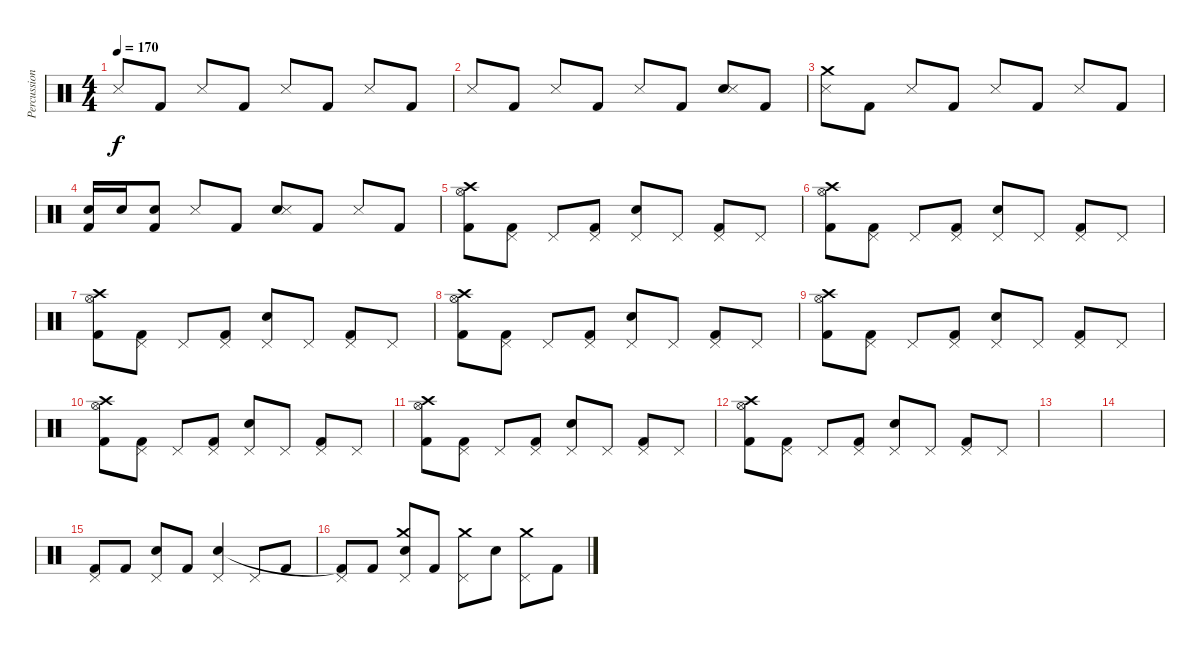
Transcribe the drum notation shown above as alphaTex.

\track ("Percussion" "Percussion") {instrument percussion}
\staff {score}
\articulation defaults
\ts (4 4)
\tempo 170
\clef neutral
\ks c "Metronome (hit)".8{dy f} "Kick (hit) 2".8 "Metronome (hit)".8 "Kick (hit) 2".8 "Metronome (hit)".8 "Kick (hit) 2".8 "Metronome (hit)".8 "Kick (hit) 2".8
|
"Metronome (hit)".8 "Kick (hit) 2".8 "Metronome (hit)".8 "Kick (hit) 2".8 "Metronome (hit)".8 "Kick (hit) 2".8 ("Electric Snare (hit)" "Metronome (hit)").8 "Kick (hit) 2".8 |
("Crash medium (hit)" "Metronome (hit)").8 "Kick (hit) 2".8 "Metronome (hit)".8 "Kick (hit) 2".8 "Metronome (hit)".8 "Kick (hit) 2".8 "Metronome (hit)".8 "Kick (hit) 2".8 |
("Electric Snare (hit)" "Kick (hit) 2").16 "Electric Snare (hit)".16 ("Electric Snare (hit)" "Kick (hit) 2").8 "Metronome (hit)".8 "Kick (hit) 2".8 ("Electric Snare (hit)" "Metronome (hit)").8 "Kick (hit) 2".8 "Metronome (hit)".8 "Kick (hit) 2".8 |
("Hi-Hat (open)" "Kick (hit) 2" "Crash high (hit)").8 ("Pedal Hi-Hat (hit)" "Kick (hit) 2").8 "Pedal Hi-Hat (hit)".8 ("Pedal Hi-Hat (hit)" "Kick (hit) 2").8 ("Pedal Hi-Hat (hit)" "Electric Snare (hit)").8 "Pedal Hi-Hat (hit)".8 ("Pedal Hi-Hat (hit)" "Kick (hit) 2").8 "Pedal Hi-Hat (hit)".8 |
("Hi-Hat (open)" "Kick (hit) 2" "Crash high (hit)").8 ("Pedal Hi-Hat (hit)" "Kick (hit) 2").8 "Pedal Hi-Hat (hit)".8 ("Pedal Hi-Hat (hit)" "Kick (hit) 2").8 ("Pedal Hi-Hat (hit)" "Electric Snare (hit)").8 "Pedal Hi-Hat (hit)".8 ("Pedal Hi-Hat (hit)" "Kick (hit) 2").8 "Pedal Hi-Hat (hit)".8 |
("Hi-Hat (open)" "Kick (hit) 2" "Crash high (hit)").8 ("Pedal Hi-Hat (hit)" "Kick (hit) 2").8 "Pedal Hi-Hat (hit)".8 ("Pedal Hi-Hat (hit)" "Kick (hit) 2").8 ("Pedal Hi-Hat (hit)" "Electric Snare (hit)").8 "Pedal Hi-Hat (hit)".8 ("Pedal Hi-Hat (hit)" "Kick (hit) 2").8 "Pedal Hi-Hat (hit)".8 |
("Hi-Hat (open)" "Kick (hit) 2" "Crash high (hit)").8 ("Pedal Hi-Hat (hit)" "Kick (hit) 2").8 "Pedal Hi-Hat (hit)".8 ("Pedal Hi-Hat (hit)" "Kick (hit) 2").8 ("Pedal Hi-Hat (hit)" "Electric Snare (hit)").8 "Pedal Hi-Hat (hit)".8 ("Pedal Hi-Hat (hit)" "Kick (hit) 2").8 "Pedal Hi-Hat (hit)".8 |
("Hi-Hat (open)" "Kick (hit) 2" "Crash high (hit)").8 ("Pedal Hi-Hat (hit)" "Kick (hit) 2").8 "Pedal Hi-Hat (hit)".8 ("Pedal Hi-Hat (hit)" "Kick (hit) 2").8 ("Pedal Hi-Hat (hit)" "Electric Snare (hit)").8 "Pedal Hi-Hat (hit)".8 ("Pedal Hi-Hat (hit)" "Kick (hit) 2").8 "Pedal Hi-Hat (hit)".8 |
("Hi-Hat (open)" "Kick (hit) 2" "Crash high (hit)").8 ("Pedal Hi-Hat (hit)" "Kick (hit) 2").8 "Pedal Hi-Hat (hit)".8 ("Pedal Hi-Hat (hit)" "Kick (hit) 2").8 ("Pedal Hi-Hat (hit)" "Electric Snare (hit)").8 "Pedal Hi-Hat (hit)".8 ("Pedal Hi-Hat (hit)" "Kick (hit) 2").8 "Pedal Hi-Hat (hit)".8 |
("Hi-Hat (open)" "Kick (hit) 2" "Crash high (hit)").8 ("Pedal Hi-Hat (hit)" "Kick (hit) 2").8 "Pedal Hi-Hat (hit)".8 ("Pedal Hi-Hat (hit)" "Kick (hit) 2").8 ("Pedal Hi-Hat (hit)" "Electric Snare (hit)").8 "Pedal Hi-Hat (hit)".8 ("Pedal Hi-Hat (hit)" "Kick (hit) 2").8 "Pedal Hi-Hat (hit)".8 |
("Hi-Hat (open)" "Kick (hit) 2" "Crash high (hit)").8 ("Pedal Hi-Hat (hit)" "Kick (hit) 2").8 "Pedal Hi-Hat (hit)".8 ("Pedal Hi-Hat (hit)" "Kick (hit) 2").8 ("Pedal Hi-Hat (hit)" "Electric Snare (hit)").8 "Pedal Hi-Hat (hit)".8 ("Pedal Hi-Hat (hit)" "Kick (hit) 2").8 "Pedal Hi-Hat (hit)".8 |
|
|
("Pedal Hi-Hat (hit)" "Kick (hit) 2").8 "Kick (hit) 2".8 ("Pedal Hi-Hat (hit)" "Electric Snare (hit)").8 "Kick (hit) 2".8 ("Pedal Hi-Hat (hit)" "Electric Snare (hit)").4 "Pedal Hi-Hat (hit)".8 "Kick (hit) 2".8 |
("Pedal Hi-Hat (hit)" "Kick (hit) 2"{t}).8 "Kick (hit) 2".8 ("Pedal Hi-Hat (hit)" "Electric Snare (hit)" "Crash medium (hit)").8 "Kick (hit) 2".8 ("Pedal Hi-Hat (hit)" "Crash medium (hit)").8 "Electric Snare (hit)".8 ("Pedal Hi-Hat (hit)" "Crash medium (hit)").8 "Kick (hit) 2".8
